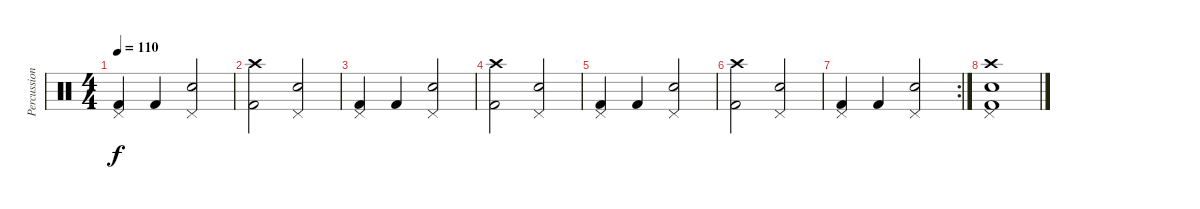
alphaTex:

\track ("Percussions" "Percussion") {instrument percussion}
\staff {score}
\articulation defaults
\ts (4 4)
\tempo 110
\clef neutral
\ks c
("Pedal Hi-Hat (hit)" "Kick (hit) 2").4{dy f} "Kick (hit) 2".4 ("Pedal Hi-Hat (hit)" "Snare (hit) 2").2 |
("Crash high (hit)" "Kick (hit) 2").2 ("Pedal Hi-Hat (hit)" "Snare (hit) 2").2 |
("Pedal Hi-Hat (hit)" "Kick (hit) 2").4 "Kick (hit) 2".4 ("Pedal Hi-Hat (hit)" "Snare (hit) 2").2 |
("Crash high (hit)" "Kick (hit) 2").2 ("Pedal Hi-Hat (hit)" "Snare (hit) 2").2 |
("Pedal Hi-Hat (hit)" "Kick (hit) 2").4 "Kick (hit) 2".4 ("Pedal Hi-Hat (hit)" "Snare (hit) 2").2 |
("Crash high (hit)" "Kick (hit) 2").2 ("Pedal Hi-Hat (hit)" "Snare (hit) 2").2 |
\rc 2
("Pedal Hi-Hat (hit)" "Kick (hit) 2").4 "Kick (hit) 2".4 ("Pedal Hi-Hat (hit)" "Snare (hit) 2").2 |
("Pedal Hi-Hat (hit)" "Crash high (hit)" "Snare (hit) 2" "Kick (hit) 2").1
